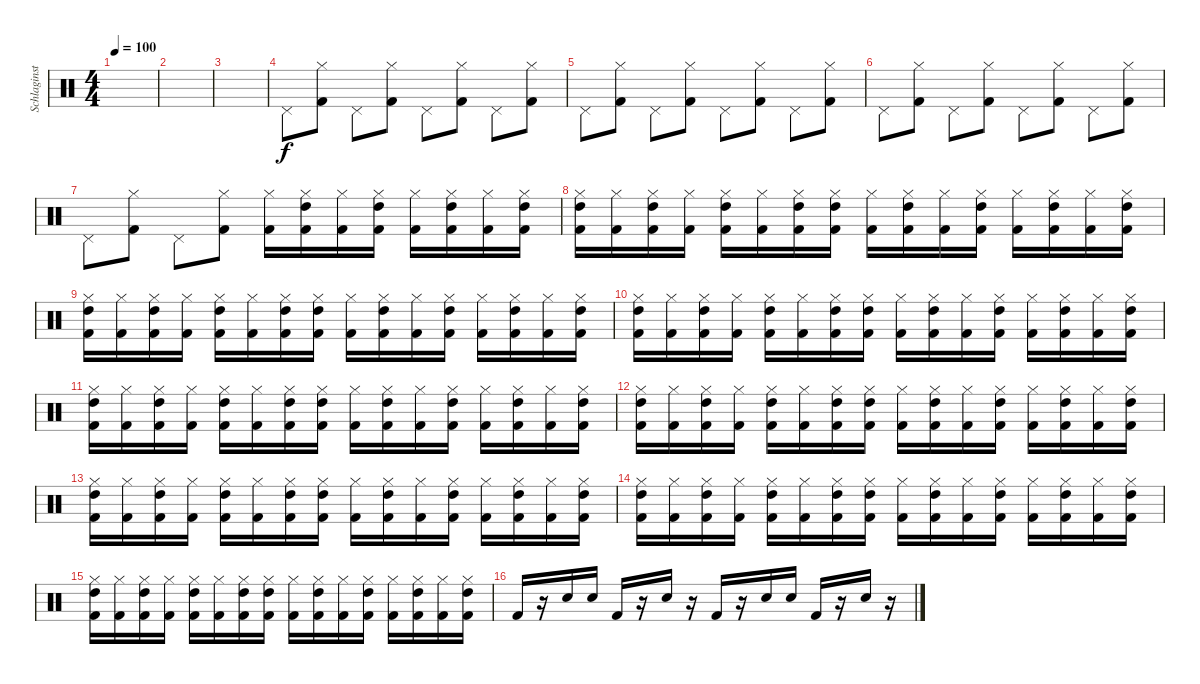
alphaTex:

\track ("Schlaginstrumente - Auswahl" "Schlaginst") {instrument percussion}
\staff {score}
\articulation defaults
\ts (4 4)
\tempo 100
\clef neutral
\ks c
|
|
|
"Pedal Hi-Hat (hit)".8 ("Hi-Hat (closed)" "Kick (hit) 2").8 "Pedal Hi-Hat (hit)".8 ("Hi-Hat (closed)" "Kick (hit) 2").8 "Pedal Hi-Hat (hit)".8 ("Hi-Hat (closed)" "Kick (hit) 2").8 "Pedal Hi-Hat (hit)".8 ("Hi-Hat (closed)" "Kick (hit) 2").8 |
"Pedal Hi-Hat (hit)".8 ("Hi-Hat (closed)" "Kick (hit) 2").8 "Pedal Hi-Hat (hit)".8 ("Hi-Hat (closed)" "Kick (hit) 2").8 "Pedal Hi-Hat (hit)".8 ("Hi-Hat (closed)" "Kick (hit) 2").8 "Pedal Hi-Hat (hit)".8 ("Hi-Hat (closed)" "Kick (hit) 2").8 |
"Pedal Hi-Hat (hit)".8 ("Hi-Hat (closed)" "Kick (hit) 2").8 "Pedal Hi-Hat (hit)".8 ("Hi-Hat (closed)" "Kick (hit) 2").8 "Pedal Hi-Hat (hit)".8 ("Hi-Hat (closed)" "Kick (hit) 2").8 "Pedal Hi-Hat (hit)".8 ("Hi-Hat (closed)" "Kick (hit) 2").8 |
"Pedal Hi-Hat (hit)".8 ("Hi-Hat (closed)" "Kick (hit) 2").8 "Pedal Hi-Hat (hit)".8 ("Hi-Hat (closed)" "Kick (hit) 2").8 ("Hi-Hat (closed)" "Kick (hit) 2").16 ("Hi-Hat (closed)" "Kick (hit) 2" "High Tom (hit)").16 ("Hi-Hat (closed)" "Kick (hit) 2").16 ("Hi-Hat (closed)" "Kick (hit) 2" "High Tom (hit)").16 ("Hi-Hat (closed)" "Kick (hit) 2").16 ("Hi-Hat (closed)" "Kick (hit) 2" "High Tom (hit)").16 ("Hi-Hat (closed)" "Kick (hit) 2").16 ("Hi-Hat (closed)" "Kick (hit) 2" "High Tom (hit)").16 |
("Hi-Hat (closed)" "Kick (hit) 2" "High Tom (hit)").16 ("Hi-Hat (closed)" "Kick (hit) 2").16 ("Hi-Hat (closed)" "Kick (hit) 2" "High Tom (hit)").16 ("Hi-Hat (closed)" "Kick (hit) 2").16 ("Hi-Hat (closed)" "Kick (hit) 2" "High Tom (hit)").16 ("Hi-Hat (closed)" "Kick (hit) 2").16 ("Hi-Hat (closed)" "Kick (hit) 2" "High Tom (hit)").16 ("Hi-Hat (closed)" "Kick (hit) 2" "High Tom (hit)").16 ("Hi-Hat (closed)" "Kick (hit) 2").16 ("Hi-Hat (closed)" "Kick (hit) 2" "High Tom (hit)").16 ("Hi-Hat (closed)" "Kick (hit) 2").16 ("Hi-Hat (closed)" "Kick (hit) 2" "High Tom (hit)").16 ("Hi-Hat (closed)" "Kick (hit) 2").16 ("Hi-Hat (closed)" "Kick (hit) 2" "High Tom (hit)").16 ("Hi-Hat (closed)" "Kick (hit) 2").16 ("Hi-Hat (closed)" "Kick (hit) 2" "High Tom (hit)").16 |
("Hi-Hat (closed)" "Kick (hit) 2" "High Tom (hit)").16 ("Hi-Hat (closed)" "Kick (hit) 2").16 ("Hi-Hat (closed)" "Kick (hit) 2" "High Tom (hit)").16 ("Hi-Hat (closed)" "Kick (hit) 2").16 ("Hi-Hat (closed)" "Kick (hit) 2" "High Tom (hit)").16 ("Hi-Hat (closed)" "Kick (hit) 2").16 ("Hi-Hat (closed)" "Kick (hit) 2" "High Tom (hit)").16 ("Hi-Hat (closed)" "Kick (hit) 2" "High Tom (hit)").16 ("Hi-Hat (closed)" "Kick (hit) 2").16 ("Hi-Hat (closed)" "Kick (hit) 2" "High Tom (hit)").16 ("Hi-Hat (closed)" "Kick (hit) 2").16 ("Hi-Hat (closed)" "Kick (hit) 2" "High Tom (hit)").16 ("Hi-Hat (closed)" "Kick (hit) 2").16 ("Hi-Hat (closed)" "Kick (hit) 2" "High Tom (hit)").16 ("Hi-Hat (closed)" "Kick (hit) 2").16 ("Hi-Hat (closed)" "Kick (hit) 2" "High Tom (hit)").16 |
("Hi-Hat (closed)" "Kick (hit) 2" "High Tom (hit)").16 ("Hi-Hat (closed)" "Kick (hit) 2").16 ("Hi-Hat (closed)" "Kick (hit) 2" "High Tom (hit)").16 ("Hi-Hat (closed)" "Kick (hit) 2").16 ("Hi-Hat (closed)" "Kick (hit) 2" "High Tom (hit)").16 ("Hi-Hat (closed)" "Kick (hit) 2").16 ("Hi-Hat (closed)" "Kick (hit) 2" "High Tom (hit)").16 ("Hi-Hat (closed)" "Kick (hit) 2" "High Tom (hit)").16 ("Hi-Hat (closed)" "Kick (hit) 2").16 ("Hi-Hat (closed)" "Kick (hit) 2" "High Tom (hit)").16 ("Hi-Hat (closed)" "Kick (hit) 2").16 ("Hi-Hat (closed)" "Kick (hit) 2" "High Tom (hit)").16 ("Hi-Hat (closed)" "Kick (hit) 2").16 ("Hi-Hat (closed)" "Kick (hit) 2" "High Tom (hit)").16 ("Hi-Hat (closed)" "Kick (hit) 2").16 ("Hi-Hat (closed)" "Kick (hit) 2" "High Tom (hit)").16 |
("Hi-Hat (closed)" "Kick (hit) 2" "High Tom (hit)").16 ("Hi-Hat (closed)" "Kick (hit) 2").16 ("Hi-Hat (closed)" "Kick (hit) 2" "High Tom (hit)").16 ("Hi-Hat (closed)" "Kick (hit) 2").16 ("Hi-Hat (closed)" "Kick (hit) 2" "High Tom (hit)").16 ("Hi-Hat (closed)" "Kick (hit) 2").16 ("Hi-Hat (closed)" "Kick (hit) 2" "High Tom (hit)").16 ("Hi-Hat (closed)" "Kick (hit) 2" "High Tom (hit)").16 ("Hi-Hat (closed)" "Kick (hit) 2").16 ("Hi-Hat (closed)" "Kick (hit) 2" "High Tom (hit)").16 ("Hi-Hat (closed)" "Kick (hit) 2").16 ("Hi-Hat (closed)" "Kick (hit) 2" "High Tom (hit)").16 ("Hi-Hat (closed)" "Kick (hit) 2").16 ("Hi-Hat (closed)" "Kick (hit) 2" "High Tom (hit)").16 ("Hi-Hat (closed)" "Kick (hit) 2").16 ("Hi-Hat (closed)" "Kick (hit) 2" "High Tom (hit)").16 |
("Hi-Hat (closed)" "Kick (hit) 2" "High Tom (hit)").16 ("Hi-Hat (closed)" "Kick (hit) 2").16 ("Hi-Hat (closed)" "Kick (hit) 2" "High Tom (hit)").16 ("Hi-Hat (closed)" "Kick (hit) 2").16 ("Hi-Hat (closed)" "Kick (hit) 2" "High Tom (hit)").16 ("Hi-Hat (closed)" "Kick (hit) 2").16 ("Hi-Hat (closed)" "Kick (hit) 2" "High Tom (hit)").16 ("Hi-Hat (closed)" "Kick (hit) 2" "High Tom (hit)").16 ("Hi-Hat (closed)" "Kick (hit) 2").16 ("Hi-Hat (closed)" "Kick (hit) 2" "High Tom (hit)").16 ("Hi-Hat (closed)" "Kick (hit) 2").16 ("Hi-Hat (closed)" "Kick (hit) 2" "High Tom (hit)").16 ("Hi-Hat (closed)" "Kick (hit) 2").16 ("Hi-Hat (closed)" "Kick (hit) 2" "High Tom (hit)").16 ("Hi-Hat (closed)" "Kick (hit) 2").16 ("Hi-Hat (closed)" "Kick (hit) 2" "High Tom (hit)").16 |
("Hi-Hat (closed)" "Kick (hit) 2" "High Tom (hit)").16 ("Hi-Hat (closed)" "Kick (hit) 2").16 ("Hi-Hat (closed)" "Kick (hit) 2" "High Tom (hit)").16 ("Hi-Hat (closed)" "Kick (hit) 2").16 ("Hi-Hat (closed)" "Kick (hit) 2" "High Tom (hit)").16 ("Hi-Hat (closed)" "Kick (hit) 2").16 ("Hi-Hat (closed)" "Kick (hit) 2" "High Tom (hit)").16 ("Hi-Hat (closed)" "Kick (hit) 2" "High Tom (hit)").16 ("Hi-Hat (closed)" "Kick (hit) 2").16 ("Hi-Hat (closed)" "Kick (hit) 2" "High Tom (hit)").16 ("Hi-Hat (closed)" "Kick (hit) 2").16 ("Hi-Hat (closed)" "Kick (hit) 2" "High Tom (hit)").16 ("Hi-Hat (closed)" "Kick (hit) 2").16 ("Hi-Hat (closed)" "Kick (hit) 2" "High Tom (hit)").16 ("Hi-Hat (closed)" "Kick (hit) 2").16 ("Hi-Hat (closed)" "Kick (hit) 2" "High Tom (hit)").16 |
("Hi-Hat (closed)" "Kick (hit) 2" "High Tom (hit)").16 ("Hi-Hat (closed)" "Kick (hit) 2").16 ("Hi-Hat (closed)" "Kick (hit) 2" "High Tom (hit)").16 ("Hi-Hat (closed)" "Kick (hit) 2").16 ("Hi-Hat (closed)" "Kick (hit) 2" "High Tom (hit)").16 ("Hi-Hat (closed)" "Kick (hit) 2").16 ("Hi-Hat (closed)" "Kick (hit) 2" "High Tom (hit)").16 ("Hi-Hat (closed)" "Kick (hit) 2" "High Tom (hit)").16 ("Hi-Hat (closed)" "Kick (hit) 2").16 ("Hi-Hat (closed)" "Kick (hit) 2" "High Tom (hit)").16 ("Hi-Hat (closed)" "Kick (hit) 2").16 ("Hi-Hat (closed)" "Kick (hit) 2" "High Tom (hit)").16 ("Hi-Hat (closed)" "Kick (hit) 2").16 ("Hi-Hat (closed)" "Kick (hit) 2" "High Tom (hit)").16 ("Hi-Hat (closed)" "Kick (hit) 2").16 ("Hi-Hat (closed)" "Kick (hit) 2" "High Tom (hit)").16 |
("Hi-Hat (closed)" "Kick (hit) 2" "High Tom (hit)").16 ("Hi-Hat (closed)" "Kick (hit) 2").16 ("Hi-Hat (closed)" "Kick (hit) 2" "High Tom (hit)").16 ("Hi-Hat (closed)" "Kick (hit) 2").16 ("Hi-Hat (closed)" "Kick (hit) 2" "High Tom (hit)").16 ("Hi-Hat (closed)" "Kick (hit) 2").16 ("Hi-Hat (closed)" "Kick (hit) 2" "High Tom (hit)").16 ("Hi-Hat (closed)" "Kick (hit) 2" "High Tom (hit)").16 ("Hi-Hat (closed)" "Kick (hit) 2").16 ("Hi-Hat (closed)" "Kick (hit) 2" "High Tom (hit)").16 ("Hi-Hat (closed)" "Kick (hit) 2").16 ("Hi-Hat (closed)" "Kick (hit) 2" "High Tom (hit)").16 ("Hi-Hat (closed)" "Kick (hit) 2").16 ("Hi-Hat (closed)" "Kick (hit) 2" "High Tom (hit)").16 ("Hi-Hat (closed)" "Kick (hit) 2").16 ("Hi-Hat (closed)" "Kick (hit) 2" "High Tom (hit)").16 |
"Kick (hit) 2".16 r.16 "Snare (hit) 2".16 "Snare (hit) 2".16 "Kick (hit) 2".16 r.16 "Snare (hit) 2".16 r.16 "Kick (hit) 2".16 r.16 "Snare (hit) 2".16 "Snare (hit) 2".16 "Kick (hit) 2".16 r.16 "Snare (hit) 2".16 r.16
